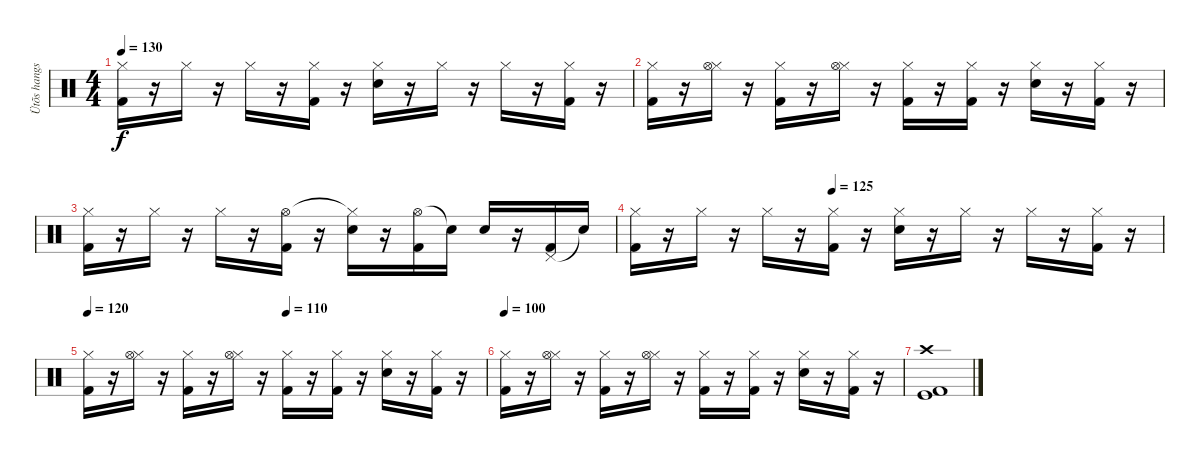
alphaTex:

\track ("Ütõs hangszer" "Ütõs hangs") {instrument percussion}
\staff {score}
\articulation defaults
\ts (4 4)
\tempo 130
\clef neutral
\ks c
("Hi-Hat (closed)" "Kick (hit) 2").16{dy f} r.16 "Hi-Hat (closed)".16 r.16 "Hi-Hat (closed)".16 r.16 ("Hi-Hat (closed)" "Kick (hit) 2").16 r.16 ("Hi-Hat (closed)" "Snare (hit) 2").16 r.16 "Hi-Hat (closed)".16 r.16 "Hi-Hat (closed)".16 r.16 ("Hi-Hat (closed)" "Kick (hit) 2").16 r.16 |
("Hi-Hat (closed)" "Kick (hit) 2").16 r.16 ("Hi-Hat (closed)" "Hi-Hat (open)").16 r.16 ("Hi-Hat (closed)" "Kick (hit) 2").16 r.16 ("Hi-Hat (closed)" "Hi-Hat (open)").16 r.16 ("Hi-Hat (closed)" "Kick (hit) 2").16 r.16 ("Hi-Hat (closed)" "Kick (hit) 2").16 r.16 ("Hi-Hat (closed)" "Snare (hit) 2").16 r.16 ("Hi-Hat (closed)" "Kick (hit) 2").16 r.16 |
("Hi-Hat (closed)" "Kick (hit) 2").16 r.16 "Hi-Hat (closed)".16 r.16 "Hi-Hat (closed)".16 r.16 ("Hi-Hat (open)" "Kick (hit) 2").16 r.16 ("Hi-Hat (closed)"{t} "Snare (hit) 2").16 r.16 ("Hi-Hat (open)" "Kick (hit) 2").16 "Snare (hit)"{t}.16 "Snare (hit) 2".16 r.16 ("Pedal Hi-Hat (hit)" "Kick (hit) 2").16 "Snare (hit)"{t}.16 |
\tempo (125 0.375)
("Hi-Hat (closed)" "Kick (hit) 2").16 r.16 "Hi-Hat (closed)".16 r.16 "Hi-Hat (closed)".16 r.16 ("Hi-Hat (closed)" "Kick (hit) 2").16 r.16 ("Hi-Hat (closed)" "Snare (hit) 2").16 r.16 "Hi-Hat (closed)".16 r.16 "Hi-Hat (closed)".16 r.16 ("Hi-Hat (closed)" "Kick (hit) 2").16 r.16 |
\tempo 120
\tempo (110 0.5)
("Hi-Hat (closed)" "Kick (hit) 2").16 r.16 ("Hi-Hat (closed)" "Hi-Hat (open)").16 r.16 ("Hi-Hat (closed)" "Kick (hit) 2").16 r.16 ("Hi-Hat (closed)" "Hi-Hat (open)").16 r.16 ("Hi-Hat (closed)" "Kick (hit) 2").16 r.16 ("Hi-Hat (closed)" "Kick (hit) 2").16 r.16 ("Hi-Hat (closed)" "Snare (hit) 2").16 r.16 ("Hi-Hat (closed)" "Kick (hit) 2").16 r.16 |
\tempo 100
("Hi-Hat (closed)" "Kick (hit) 2").16 r.16 ("Hi-Hat (closed)" "Hi-Hat (open)").16 r.16 ("Hi-Hat (closed)" "Kick (hit) 2").16 r.16 ("Hi-Hat (closed)" "Hi-Hat (open)").16 r.16 ("Hi-Hat (closed)" "Kick (hit) 2").16 r.16 ("Hi-Hat (closed)" "Kick (hit) 2").16 r.16 ("Hi-Hat (closed)" "Snare (hit) 2").16 r.16 ("Hi-Hat (closed)" "Kick (hit) 2").16 r.16 |
("Crash high (hit)" "Kick (hit)" "Kick (hit) 2").1
